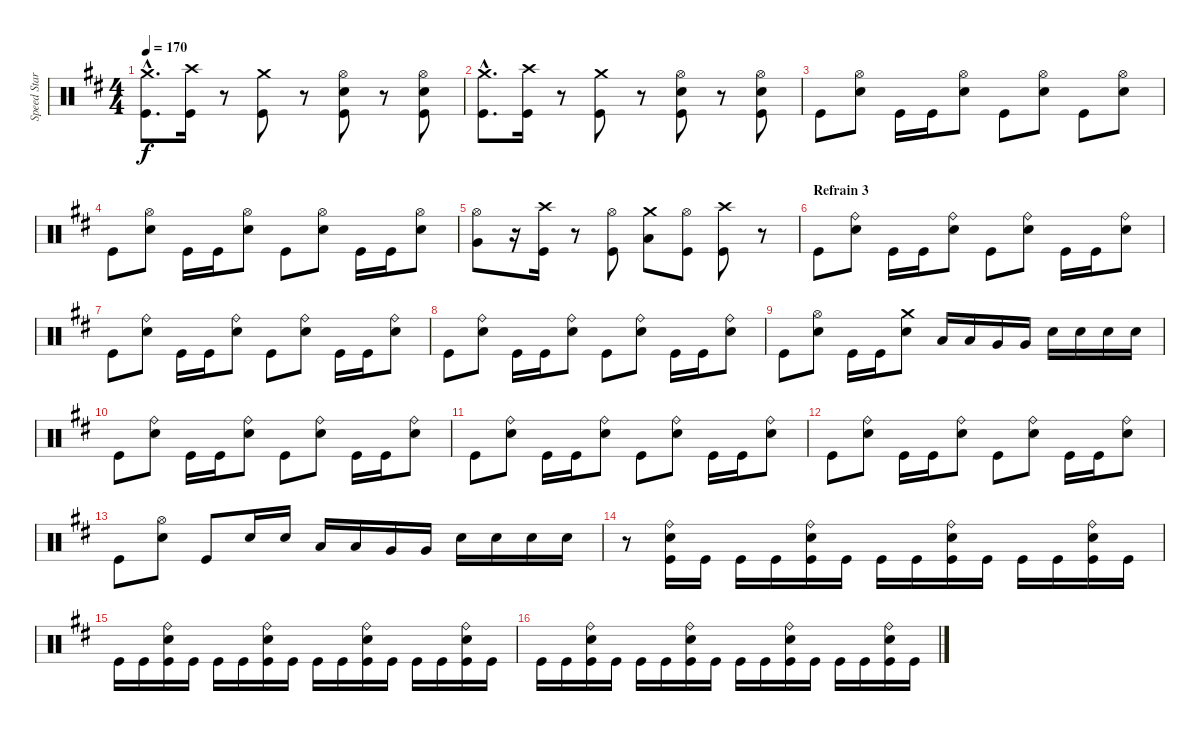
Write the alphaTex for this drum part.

\track ("Speed Star" "Speed Star") {instrument percussion}
\staff {score}
\articulation defaults
\ts (4 4)
\tempo 170
\clef neutral
\ks d
("Kick (hit)"{hac} "Crash medium (hit)"{hac}).8{d dy f} ("Kick (hit)" "Crash high (hit)").16 r.8 ("Kick (hit)" "Crash medium (hit)").8 r.8 ("Snare (hit) 2" "Kick (hit)" "Hi-Hat (open)").8 r.8 ("Snare (hit) 2" "Kick (hit)" "Hi-Hat (open)").8 |
("Kick (hit)"{hac} "Crash medium (hit)"{hac}).8{d} ("Kick (hit)" "Crash high (hit)").16 r.8 ("Kick (hit)" "Crash medium (hit)").8 r.8 ("Snare (hit) 2" "Kick (hit)" "Hi-Hat (open)").8 r.8 ("Snare (hit) 2" "Kick (hit)" "Hi-Hat (open)").8 |
"Kick (hit)".8 ("Snare (hit) 2" "Hi-Hat (open)").8 "Kick (hit)".16 "Kick (hit)".16 ("Snare (hit) 2" "Hi-Hat (open)").8 "Kick (hit)".8 ("Snare (hit) 2" "Hi-Hat (open)").8 "Kick (hit)".8 ("Snare (hit) 2" "Hi-Hat (open)").8 |
"Kick (hit)".8 ("Snare (hit) 2" "Hi-Hat (open)").8 "Kick (hit)".16 "Kick (hit)".16 ("Snare (hit) 2" "Hi-Hat (open)").8 "Kick (hit)".8 ("Snare (hit) 2" "Hi-Hat (open)").8 "Kick (hit)".16 "Kick (hit)".16 ("Snare (hit) 2" "Hi-Hat (open)").8 |
("Very Low Tom (hit)" "Hi-Hat (open)").8 r.16 ("Kick (hit)" "Crash high (hit)").16 r.8 ("Kick (hit)" "Hi-Hat (open)").8 ("Low Floor Tom (hit)" "Crash medium (hit)").8 ("Kick (hit)" "Hi-Hat (open)").8 ("Kick (hit)" "Crash high (hit)").8 r.8 |
\section ("" "Refrain 3")
"Kick (hit)".8 ("Snare (hit) 2" "Ride (bell)").8 "Kick (hit)".16 "Kick (hit)".16 ("Snare (hit) 2" "Ride (bell)").8 "Kick (hit)".8 ("Snare (hit) 2" "Ride (bell)").8 "Kick (hit)".16 "Kick (hit)".16 ("Snare (hit) 2" "Ride (bell)").8 |
"Kick (hit)".8 ("Snare (hit) 2" "Ride (bell)").8 "Kick (hit)".16 "Kick (hit)".16 ("Snare (hit) 2" "Ride (bell)").8 "Kick (hit)".8 ("Snare (hit) 2" "Ride (bell)").8 "Kick (hit)".16 "Kick (hit)".16 ("Snare (hit) 2" "Ride (bell)").8 |
"Kick (hit)".8 ("Snare (hit) 2" "Ride (bell)").8 "Kick (hit)".16 "Kick (hit)".16 ("Snare (hit) 2" "Ride (bell)").8 "Kick (hit)".8 ("Snare (hit) 2" "Ride (bell)").8 "Kick (hit)".16 "Kick (hit)".16 ("Snare (hit) 2" "Ride (bell)").8 |
"Kick (hit)".8 ("Snare (hit) 2" "Hi-Hat (open)").8 "Kick (hit)".16 "Kick (hit)".16 ("Snare (hit) 2" "Crash medium (hit)").8 "Low Tom (hit)".16 "Low Tom (hit)".16 "Very Low Tom (hit)".16 "Very Low Tom (hit)".16 "Snare (hit) 2".16 "Snare (hit) 2".16 "Snare (hit) 2".16 "Snare (hit) 2".16 |
"Kick (hit)".8 ("Snare (hit) 2" "Ride (bell)").8 "Kick (hit)".16 "Kick (hit)".16 ("Snare (hit) 2" "Ride (bell)").8 "Kick (hit)".8 ("Snare (hit) 2" "Ride (bell)").8 "Kick (hit)".16 "Kick (hit)".16 ("Snare (hit) 2" "Ride (bell)").8 |
"Kick (hit)".8 ("Snare (hit) 2" "Ride (bell)").8 "Kick (hit)".16 "Kick (hit)".16 ("Snare (hit) 2" "Ride (bell)").8 "Kick (hit)".8 ("Snare (hit) 2" "Ride (bell)").8 "Kick (hit)".16 "Kick (hit)".16 ("Snare (hit) 2" "Ride (bell)").8 |
"Kick (hit)".8 ("Snare (hit) 2" "Ride (bell)").8 "Kick (hit)".16 "Kick (hit)".16 ("Snare (hit) 2" "Ride (bell)").8 "Kick (hit)".8 ("Snare (hit) 2" "Ride (bell)").8 "Kick (hit)".16 "Kick (hit)".16 ("Snare (hit) 2" "Ride (bell)").8 |
"Kick (hit)".8 ("Snare (hit) 2" "Hi-Hat (open)").8 "Kick (hit)".8 "Snare (hit) 2".16 "Snare (hit) 2".16 "Low Tom (hit)".16 "Low Tom (hit)".16 "Very Low Tom (hit)".16 "Very Low Tom (hit)".16 "Snare (hit) 2".16 "Snare (hit) 2".16 "Snare (hit) 2".16 "Snare (hit) 2".16 |
r.8 ("Kick (hit)" "Snare (hit) 2" "Ride (bell)").16 "Kick (hit)".16 "Kick (hit)".16 "Kick (hit)".16 ("Kick (hit)" "Snare (hit) 2" "Ride (bell)").16 "Kick (hit)".16 "Kick (hit)".16 "Kick (hit)".16 ("Kick (hit)" "Snare (hit) 2" "Ride (bell)").16 "Kick (hit)".16 "Kick (hit)".16 "Kick (hit)".16 ("Kick (hit)" "Snare (hit) 2" "Ride (bell)").16 "Kick (hit)".16 |
"Kick (hit)".16 "Kick (hit)".16 ("Kick (hit)" "Snare (hit) 2" "Ride (bell)").16 "Kick (hit)".16 "Kick (hit)".16 "Kick (hit)".16 ("Kick (hit)" "Snare (hit) 2" "Ride (bell)").16 "Kick (hit)".16 "Kick (hit)".16 "Kick (hit)".16 ("Kick (hit)" "Snare (hit) 2" "Ride (bell)").16 "Kick (hit)".16 "Kick (hit)".16 "Kick (hit)".16 ("Kick (hit)" "Snare (hit) 2" "Ride (bell)").16 "Kick (hit)".16 |
"Kick (hit)".16 "Kick (hit)".16 ("Kick (hit)" "Snare (hit) 2" "Ride (bell)").16 "Kick (hit)".16 "Kick (hit)".16 "Kick (hit)".16 ("Kick (hit)" "Snare (hit) 2" "Ride (bell)").16 "Kick (hit)".16 "Kick (hit)".16 "Kick (hit)".16 ("Kick (hit)" "Snare (hit) 2" "Ride (bell)").16 "Kick (hit)".16 "Kick (hit)".16 "Kick (hit)".16 ("Kick (hit)" "Snare (hit) 2" "Ride (bell)").16 "Kick (hit)".16
